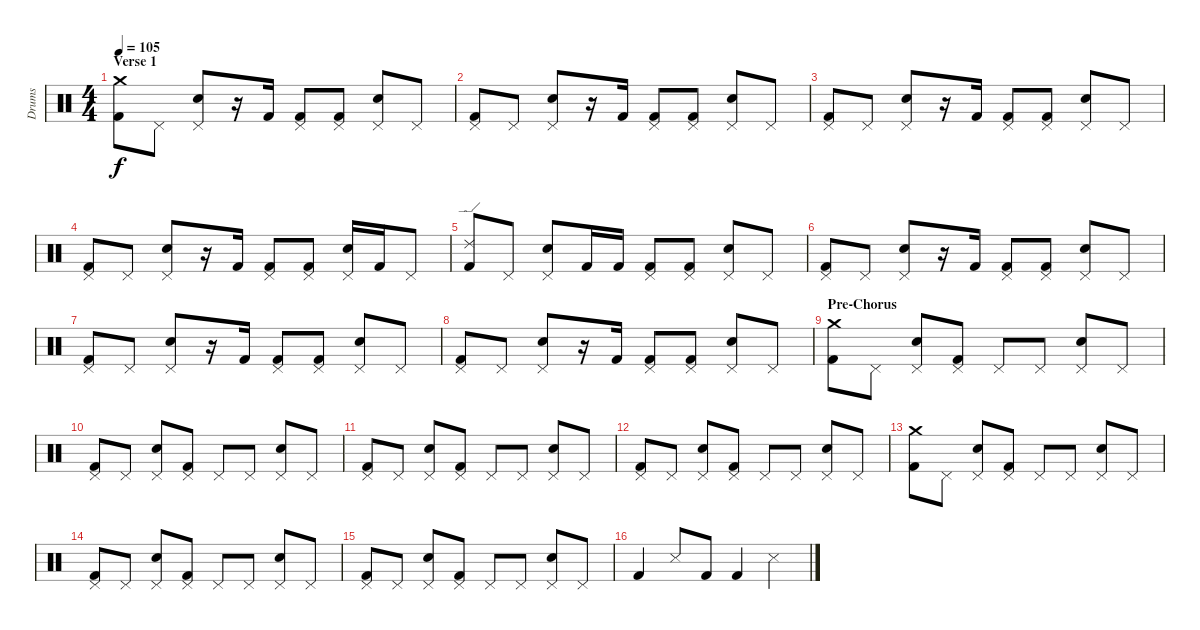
\track ("Drums" "Drums") {instrument percussion}
\staff {score}
\articulation defaults
\ts (4 4)
\section ("" "Verse 1")
\tempo 105
\clef neutral
\ks c
("Crash medium (hit)" "Kick (hit) 2").8{dy f} "Pedal Hi-Hat (hit)".8 ("Pedal Hi-Hat (hit)" "Electric Snare (hit)").8 r.16 "Kick (hit) 2".16 ("Pedal Hi-Hat (hit)" "Kick (hit) 2").8 ("Pedal Hi-Hat (hit)" "Kick (hit) 2").8 ("Pedal Hi-Hat (hit)" "Electric Snare (hit)").8 "Pedal Hi-Hat (hit)".8 |
("Pedal Hi-Hat (hit)" "Kick (hit) 2").8 "Pedal Hi-Hat (hit)".8 ("Pedal Hi-Hat (hit)" "Electric Snare (hit)").8 r.16 "Kick (hit) 2".16 ("Pedal Hi-Hat (hit)" "Kick (hit) 2").8 ("Pedal Hi-Hat (hit)" "Kick (hit) 2").8 ("Pedal Hi-Hat (hit)" "Electric Snare (hit)").8 "Pedal Hi-Hat (hit)".8 |
("Pedal Hi-Hat (hit)" "Kick (hit) 2").8 "Pedal Hi-Hat (hit)".8 ("Pedal Hi-Hat (hit)" "Electric Snare (hit)").8 r.16 "Kick (hit) 2".16 ("Pedal Hi-Hat (hit)" "Kick (hit) 2").8 ("Pedal Hi-Hat (hit)" "Kick (hit) 2").8 ("Pedal Hi-Hat (hit)" "Electric Snare (hit)").8 "Pedal Hi-Hat (hit)".8 |
("Pedal Hi-Hat (hit)" "Kick (hit) 2").8 "Pedal Hi-Hat (hit)".8 ("Pedal Hi-Hat (hit)" "Electric Snare (hit)").8 r.16 "Kick (hit) 2".16 ("Pedal Hi-Hat (hit)" "Kick (hit) 2").8 ("Pedal Hi-Hat (hit)" "Kick (hit) 2").8 ("Pedal Hi-Hat (hit)" "Electric Snare (hit)").16 "Kick (hit) 2".16 "Pedal Hi-Hat (hit)".8 |
("Ride (edge) 2" "Kick (hit) 2").8 "Pedal Hi-Hat (hit)".8 ("Pedal Hi-Hat (hit)" "Electric Snare (hit)").8 "Kick (hit) 2".16 "Kick (hit) 2".16 ("Pedal Hi-Hat (hit)" "Kick (hit) 2").8 ("Pedal Hi-Hat (hit)" "Kick (hit) 2").8 ("Pedal Hi-Hat (hit)" "Electric Snare (hit)").8 "Pedal Hi-Hat (hit)".8 |
("Pedal Hi-Hat (hit)" "Kick (hit) 2").8 "Pedal Hi-Hat (hit)".8 ("Pedal Hi-Hat (hit)" "Electric Snare (hit)").8 r.16 "Kick (hit) 2".16 ("Pedal Hi-Hat (hit)" "Kick (hit) 2").8 ("Pedal Hi-Hat (hit)" "Kick (hit) 2").8 ("Pedal Hi-Hat (hit)" "Electric Snare (hit)").8 "Pedal Hi-Hat (hit)".8 |
("Pedal Hi-Hat (hit)" "Kick (hit) 2").8 "Pedal Hi-Hat (hit)".8 ("Pedal Hi-Hat (hit)" "Electric Snare (hit)").8 r.16 "Kick (hit) 2".16 ("Pedal Hi-Hat (hit)" "Kick (hit) 2").8 ("Pedal Hi-Hat (hit)" "Kick (hit) 2").8 ("Pedal Hi-Hat (hit)" "Electric Snare (hit)").8 "Pedal Hi-Hat (hit)".8 |
("Pedal Hi-Hat (hit)" "Kick (hit) 2").8 "Pedal Hi-Hat (hit)".8 ("Pedal Hi-Hat (hit)" "Electric Snare (hit)").8 r.16 "Kick (hit) 2".16 ("Pedal Hi-Hat (hit)" "Kick (hit) 2").8 ("Pedal Hi-Hat (hit)" "Kick (hit) 2").8 ("Pedal Hi-Hat (hit)" "Electric Snare (hit)").8 "Pedal Hi-Hat (hit)".8 |
\section ("" "Pre-Chorus")
("Crash medium (hit)" "Kick (hit) 2").8 "Pedal Hi-Hat (hit)".8 ("Pedal Hi-Hat (hit)" "Electric Snare (hit)").8 ("Pedal Hi-Hat (hit)" "Kick (hit) 2").8 "Pedal Hi-Hat (hit)".8 "Pedal Hi-Hat (hit)".8 ("Pedal Hi-Hat (hit)" "Electric Snare (hit)").8 "Pedal Hi-Hat (hit)".8 |
("Pedal Hi-Hat (hit)" "Kick (hit) 2").8 "Pedal Hi-Hat (hit)".8 ("Pedal Hi-Hat (hit)" "Electric Snare (hit)").8 ("Pedal Hi-Hat (hit)" "Kick (hit) 2").8 "Pedal Hi-Hat (hit)".8 "Pedal Hi-Hat (hit)".8 ("Pedal Hi-Hat (hit)" "Electric Snare (hit)").8 "Pedal Hi-Hat (hit)".8 |
("Pedal Hi-Hat (hit)" "Kick (hit) 2").8 "Pedal Hi-Hat (hit)".8 ("Pedal Hi-Hat (hit)" "Electric Snare (hit)").8 ("Pedal Hi-Hat (hit)" "Kick (hit) 2").8 "Pedal Hi-Hat (hit)".8 "Pedal Hi-Hat (hit)".8 ("Pedal Hi-Hat (hit)" "Electric Snare (hit)").8 "Pedal Hi-Hat (hit)".8 |
("Pedal Hi-Hat (hit)" "Kick (hit) 2").8 "Pedal Hi-Hat (hit)".8 ("Pedal Hi-Hat (hit)" "Electric Snare (hit)").8 ("Pedal Hi-Hat (hit)" "Kick (hit) 2").8 "Pedal Hi-Hat (hit)".8 "Pedal Hi-Hat (hit)".8 ("Pedal Hi-Hat (hit)" "Electric Snare (hit)").8 "Pedal Hi-Hat (hit)".8 |
("Crash medium (hit)" "Kick (hit) 2").8 "Pedal Hi-Hat (hit)".8 ("Pedal Hi-Hat (hit)" "Electric Snare (hit)").8 ("Pedal Hi-Hat (hit)" "Kick (hit) 2").8 "Pedal Hi-Hat (hit)".8 "Pedal Hi-Hat (hit)".8 ("Pedal Hi-Hat (hit)" "Electric Snare (hit)").8 "Pedal Hi-Hat (hit)".8 |
("Pedal Hi-Hat (hit)" "Kick (hit) 2").8 "Pedal Hi-Hat (hit)".8 ("Pedal Hi-Hat (hit)" "Electric Snare (hit)").8 ("Pedal Hi-Hat (hit)" "Kick (hit) 2").8 "Pedal Hi-Hat (hit)".8 "Pedal Hi-Hat (hit)".8 ("Pedal Hi-Hat (hit)" "Electric Snare (hit)").8 "Pedal Hi-Hat (hit)".8 |
("Pedal Hi-Hat (hit)" "Kick (hit) 2").8 "Pedal Hi-Hat (hit)".8 ("Pedal Hi-Hat (hit)" "Electric Snare (hit)").8 ("Pedal Hi-Hat (hit)" "Kick (hit) 2").8 "Pedal Hi-Hat (hit)".8 "Pedal Hi-Hat (hit)".8 ("Pedal Hi-Hat (hit)" "Electric Snare (hit)").8 "Pedal Hi-Hat (hit)".8 |
"Kick (hit) 2".4 "Snare (side stick) 3".8 "Kick (hit) 2".8 "Kick (hit) 2".4 "Snare (side stick) 3".4
